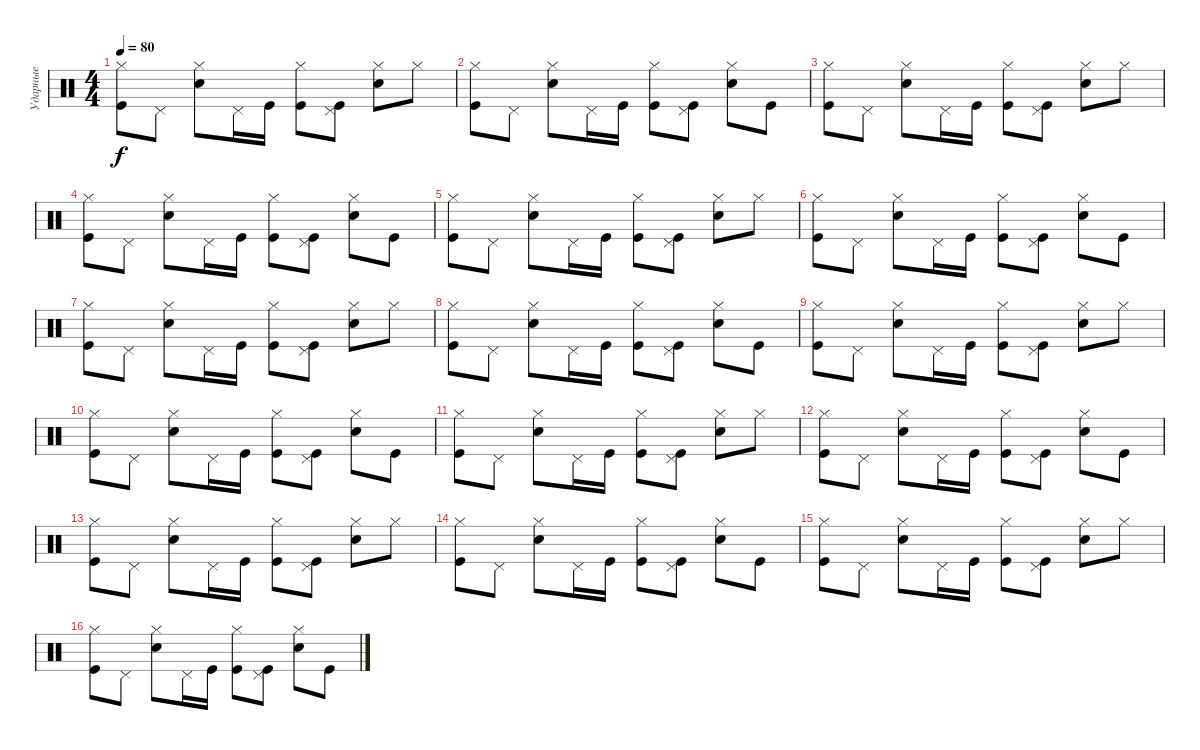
\track ("Ударные" "Ударные") {instrument percussion}
\staff {score}
\articulation defaults
\ts (4 4)
\tempo 80
\clef neutral
\ks c
("Kick (hit)" "Hi-Hat (closed)").8{dy f} "Pedal Hi-Hat (hit)".8 ("Snare (hit) 2" "Hi-Hat (closed)").8 "Pedal Hi-Hat (hit)".16 "Kick (hit)".16 ("Kick (hit)" "Hi-Hat (closed)").8 ("Kick (hit)" "Pedal Hi-Hat (hit)").8 ("Snare (hit) 2" "Hi-Hat (closed)").8 "Hi-Hat (closed)".8 |
("Kick (hit)" "Hi-Hat (closed)").8 "Pedal Hi-Hat (hit)".8 ("Snare (hit) 2" "Hi-Hat (closed)").8 "Pedal Hi-Hat (hit)".16 "Kick (hit)".16 ("Kick (hit)" "Hi-Hat (closed)").8 ("Kick (hit)" "Pedal Hi-Hat (hit)").8 ("Snare (hit) 2" "Hi-Hat (closed)").8 "Kick (hit)".8 |
("Kick (hit)" "Hi-Hat (closed)").8 "Pedal Hi-Hat (hit)".8 ("Snare (hit) 2" "Hi-Hat (closed)").8 "Pedal Hi-Hat (hit)".16 "Kick (hit)".16 ("Kick (hit)" "Hi-Hat (closed)").8 ("Kick (hit)" "Pedal Hi-Hat (hit)").8 ("Snare (hit) 2" "Hi-Hat (closed)").8 "Hi-Hat (closed)".8 |
("Kick (hit)" "Hi-Hat (closed)").8 "Pedal Hi-Hat (hit)".8 ("Snare (hit) 2" "Hi-Hat (closed)").8 "Pedal Hi-Hat (hit)".16 "Kick (hit)".16 ("Kick (hit)" "Hi-Hat (closed)").8 ("Kick (hit)" "Pedal Hi-Hat (hit)").8 ("Snare (hit) 2" "Hi-Hat (closed)").8 "Kick (hit)".8 |
("Kick (hit)" "Hi-Hat (closed)").8 "Pedal Hi-Hat (hit)".8 ("Snare (hit) 2" "Hi-Hat (closed)").8 "Pedal Hi-Hat (hit)".16 "Kick (hit)".16 ("Kick (hit)" "Hi-Hat (closed)").8 ("Kick (hit)" "Pedal Hi-Hat (hit)").8 ("Snare (hit) 2" "Hi-Hat (closed)").8 "Hi-Hat (closed)".8 |
("Kick (hit)" "Hi-Hat (closed)").8 "Pedal Hi-Hat (hit)".8 ("Snare (hit) 2" "Hi-Hat (closed)").8 "Pedal Hi-Hat (hit)".16 "Kick (hit)".16 ("Kick (hit)" "Hi-Hat (closed)").8 ("Kick (hit)" "Pedal Hi-Hat (hit)").8 ("Snare (hit) 2" "Hi-Hat (closed)").8 "Kick (hit)".8 |
("Kick (hit)" "Hi-Hat (closed)").8 "Pedal Hi-Hat (hit)".8 ("Snare (hit) 2" "Hi-Hat (closed)").8 "Pedal Hi-Hat (hit)".16 "Kick (hit)".16 ("Kick (hit)" "Hi-Hat (closed)").8 ("Kick (hit)" "Pedal Hi-Hat (hit)").8 ("Snare (hit) 2" "Hi-Hat (closed)").8 "Hi-Hat (closed)".8 |
("Kick (hit)" "Hi-Hat (closed)").8 "Pedal Hi-Hat (hit)".8 ("Snare (hit) 2" "Hi-Hat (closed)").8 "Pedal Hi-Hat (hit)".16 "Kick (hit)".16 ("Kick (hit)" "Hi-Hat (closed)").8 ("Kick (hit)" "Pedal Hi-Hat (hit)").8 ("Snare (hit) 2" "Hi-Hat (closed)").8 "Kick (hit)".8 |
("Kick (hit)" "Hi-Hat (closed)").8 "Pedal Hi-Hat (hit)".8 ("Snare (hit) 2" "Hi-Hat (closed)").8 "Pedal Hi-Hat (hit)".16 "Kick (hit)".16 ("Kick (hit)" "Hi-Hat (closed)").8 ("Kick (hit)" "Pedal Hi-Hat (hit)").8 ("Snare (hit) 2" "Hi-Hat (closed)").8 "Hi-Hat (closed)".8 |
("Kick (hit)" "Hi-Hat (closed)").8 "Pedal Hi-Hat (hit)".8 ("Snare (hit) 2" "Hi-Hat (closed)").8 "Pedal Hi-Hat (hit)".16 "Kick (hit)".16 ("Kick (hit)" "Hi-Hat (closed)").8 ("Kick (hit)" "Pedal Hi-Hat (hit)").8 ("Snare (hit) 2" "Hi-Hat (closed)").8 "Kick (hit)".8 |
("Kick (hit)" "Hi-Hat (closed)").8 "Pedal Hi-Hat (hit)".8 ("Snare (hit) 2" "Hi-Hat (closed)").8 "Pedal Hi-Hat (hit)".16 "Kick (hit)".16 ("Kick (hit)" "Hi-Hat (closed)").8 ("Kick (hit)" "Pedal Hi-Hat (hit)").8 ("Snare (hit) 2" "Hi-Hat (closed)").8 "Hi-Hat (closed)".8 |
("Kick (hit)" "Hi-Hat (closed)").8 "Pedal Hi-Hat (hit)".8 ("Snare (hit) 2" "Hi-Hat (closed)").8 "Pedal Hi-Hat (hit)".16 "Kick (hit)".16 ("Kick (hit)" "Hi-Hat (closed)").8 ("Kick (hit)" "Pedal Hi-Hat (hit)").8 ("Snare (hit) 2" "Hi-Hat (closed)").8 "Kick (hit)".8 |
("Kick (hit)" "Hi-Hat (closed)").8 "Pedal Hi-Hat (hit)".8 ("Snare (hit) 2" "Hi-Hat (closed)").8 "Pedal Hi-Hat (hit)".16 "Kick (hit)".16 ("Kick (hit)" "Hi-Hat (closed)").8 ("Kick (hit)" "Pedal Hi-Hat (hit)").8 ("Snare (hit) 2" "Hi-Hat (closed)").8 "Hi-Hat (closed)".8 |
("Kick (hit)" "Hi-Hat (closed)").8 "Pedal Hi-Hat (hit)".8 ("Snare (hit) 2" "Hi-Hat (closed)").8 "Pedal Hi-Hat (hit)".16 "Kick (hit)".16 ("Kick (hit)" "Hi-Hat (closed)").8 ("Kick (hit)" "Pedal Hi-Hat (hit)").8 ("Snare (hit) 2" "Hi-Hat (closed)").8 "Kick (hit)".8 |
("Kick (hit)" "Hi-Hat (closed)").8 "Pedal Hi-Hat (hit)".8 ("Snare (hit) 2" "Hi-Hat (closed)").8 "Pedal Hi-Hat (hit)".16 "Kick (hit)".16 ("Kick (hit)" "Hi-Hat (closed)").8 ("Kick (hit)" "Pedal Hi-Hat (hit)").8 ("Snare (hit) 2" "Hi-Hat (closed)").8 "Hi-Hat (closed)".8 |
("Kick (hit)" "Hi-Hat (closed)").8 "Pedal Hi-Hat (hit)".8 ("Snare (hit) 2" "Hi-Hat (closed)").8 "Pedal Hi-Hat (hit)".16 "Kick (hit)".16 ("Kick (hit)" "Hi-Hat (closed)").8 ("Kick (hit)" "Pedal Hi-Hat (hit)").8 ("Snare (hit) 2" "Hi-Hat (closed)").8 "Kick (hit)".8
